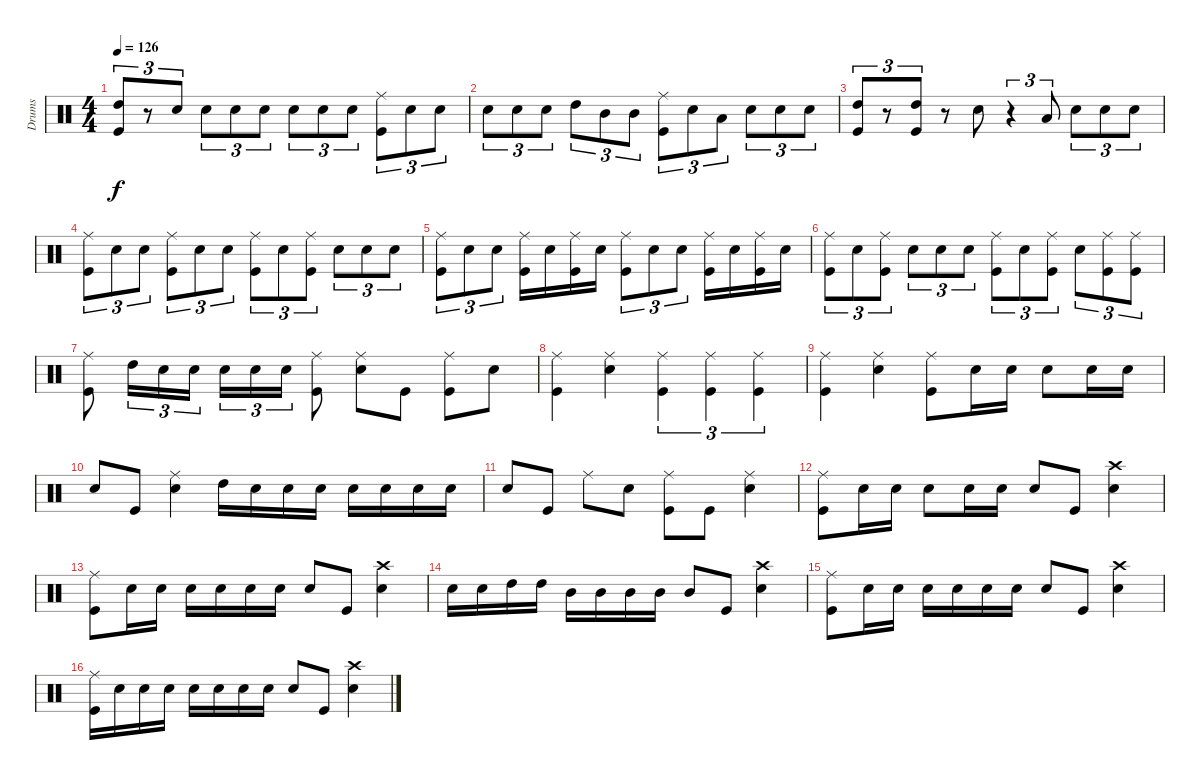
\track ("Drums" "Drums") {instrument percussion}
\staff {score}
\articulation defaults
\ts (4 4)
\tempo 126
\clef neutral
\ks c
("High Tom (hit)" "Kick (hit)").8{tu (3 2) dy f} r.8{tu (3 2)} "Electric Snare (hit)".8{tu (3 2)} "Electric Snare (hit)".8{tu (3 2)} "Electric Snare (hit)".8{tu (3 2)} "Electric Snare (hit)".8{tu (3 2)} "Electric Snare (hit)".8{tu (3 2)} "Electric Snare (hit)".8{tu (3 2)} "Electric Snare (hit)".8{tu (3 2)} ("Ride (middle)" "Kick (hit)").8{tu (3 2)} "Electric Snare (hit)".8{tu (3 2)} "Electric Snare (hit)".8{tu (3 2)} |
"Electric Snare (hit)".8{tu (3 2)} "Electric Snare (hit)".8{tu (3 2)} "Electric Snare (hit)".8{tu (3 2)} "High Tom (hit)".8{tu (3 2)} "Mid Tom (hit)".8{tu (3 2)} "Mid Tom (hit)".8{tu (3 2)} ("Ride (middle)" "Kick (hit)").8{tu (3 2)} "Electric Snare (hit)".8{tu (3 2)} "Low Floor Tom (hit)".8{tu (3 2)} "Electric Snare (hit)".8{tu (3 2)} "Electric Snare (hit)".8{tu (3 2)} "Electric Snare (hit)".8{tu (3 2)} |
("High Tom (hit)" "Kick (hit)").8{tu (3 2)} r.8{tu (3 2)} ("High Tom (hit)" "Kick (hit)").8{tu (3 2)} r.8 "Electric Snare (hit)".8 r.4{tu (3 2)} "Low Floor Tom (hit)".8{tu (3 2)} "Electric Snare (hit)".8{tu (3 2)} "Electric Snare (hit)".8{tu (3 2)} "Electric Snare (hit)".8{tu (3 2)} |
("Ride (middle)" "Kick (hit)").8{tu (3 2)} "Electric Snare (hit)".8{tu (3 2)} "Electric Snare (hit)".8{tu (3 2)} ("Ride (middle)" "Kick (hit)").8{tu (3 2)} "Electric Snare (hit)".8{tu (3 2)} "Electric Snare (hit)".8{tu (3 2)} ("Ride (middle)" "Kick (hit)").8{tu (3 2)} "Electric Snare (hit)".8{tu (3 2)} ("Ride (middle)" "Kick (hit)").8{tu (3 2)} "Electric Snare (hit)".8{tu (3 2)} "Electric Snare (hit)".8{tu (3 2)} "Electric Snare (hit)".8{tu (3 2)} |
("Ride (middle)" "Kick (hit)").8{tu (3 2)} "Electric Snare (hit)".8{tu (3 2)} "Electric Snare (hit)".8{tu (3 2)} ("Ride (middle)" "Kick (hit)").16 "Electric Snare (hit)".16 ("Ride (middle)" "Kick (hit)").16 "Electric Snare (hit)".16 ("Ride (middle)" "Kick (hit)").8{tu (3 2)} "Electric Snare (hit)".8{tu (3 2)} "Electric Snare (hit)".8{tu (3 2)} ("Ride (middle)" "Kick (hit)").16 "Electric Snare (hit)".16 ("Ride (middle)" "Kick (hit)").16 "Electric Snare (hit)".16 |
("Ride (middle)" "Kick (hit)").8{tu (3 2)} "Electric Snare (hit)".8{tu (3 2)} ("Ride (middle)" "Kick (hit)").8{tu (3 2)} "Electric Snare (hit)".8{tu (3 2)} "Electric Snare (hit)".8{tu (3 2)} "Electric Snare (hit)".8{tu (3 2)} ("Ride (middle)" "Kick (hit)").8{tu (3 2)} "Electric Snare (hit)".8{tu (3 2)} ("Ride (middle)" "Kick (hit)").8{tu (3 2)} "Electric Snare (hit)".8{tu (3 2)} ("Ride (middle)" "Kick (hit)").8{tu (3 2)} ("Ride (middle)" "Kick (hit)").8{tu (3 2)} |
("Ride (middle)" "Kick (hit)").8 "High Tom (hit)".16{tu (3 2)} "Electric Snare (hit)".16{tu (3 2)} "Electric Snare (hit)".16{tu (3 2)} "Electric Snare (hit)".16{tu (3 2)} "Electric Snare (hit)".16{tu (3 2)} "Electric Snare (hit)".16{tu (3 2)} ("Ride (middle)" "Kick (hit)").8 ("Ride (middle)" "Electric Snare (hit)").8 "Kick (hit)".8 ("Ride (middle)" "Kick (hit)").8 "Electric Snare (hit)".8 |
("Ride (middle)" "Kick (hit)").4 ("Ride (middle)" "Electric Snare (hit)").4 ("Ride (middle)" "Kick (hit)").4{tu (3 2)} ("Ride (middle)" "Kick (hit)").4{tu (3 2)} ("Ride (middle)" "Kick (hit)").4{tu (3 2)} |
("Ride (middle)" "Kick (hit)").4 ("Ride (middle)" "Electric Snare (hit)").4 ("Ride (middle)" "Kick (hit)").8 "Electric Snare (hit)".16 "Electric Snare (hit)".16 "Electric Snare (hit)".8 "Electric Snare (hit)".16 "Electric Snare (hit)".16 |
"Electric Snare (hit)".8 "Kick (hit)".8 ("Ride (middle)" "Electric Snare (hit)").4 "High Tom (hit)".16 "Electric Snare (hit)".16 "Electric Snare (hit)".16 "Electric Snare (hit)".16 "Electric Snare (hit)".16 "Electric Snare (hit)".16 "Electric Snare (hit)".16 "Electric Snare (hit)".16 |
"Electric Snare (hit)".8 "Kick (hit)".8 "Ride (middle)".8 "Electric Snare (hit)".8 ("Ride (middle)" "Kick (hit)").8 "Kick (hit)".8 ("Ride (middle)" "Electric Snare (hit)").4 |
("Ride (middle)" "Kick (hit)").8 "Electric Snare (hit)".16 "Electric Snare (hit)".16 "Electric Snare (hit)".8 "Electric Snare (hit)".16 "Electric Snare (hit)".16 "Electric Snare (hit)".8 "Kick (hit)".8 ("Crash high (hit)" "Electric Snare (hit)").4 |
("Ride (middle)" "Kick (hit)").8 "Electric Snare (hit)".16 "Electric Snare (hit)".16 "Electric Snare (hit)".16 "Electric Snare (hit)".16 "Electric Snare (hit)".16 "Electric Snare (hit)".16 "Electric Snare (hit)".8 "Kick (hit)".8 ("Crash high (hit)" "Electric Snare (hit)").4 |
"Electric Snare (hit)".16 "Electric Snare (hit)".16 "High Tom (hit)".16 "High Tom (hit)".16 "Mid Tom (hit)".16 "Mid Tom (hit)".16 "Mid Tom (hit)".16 "Mid Tom (hit)".16 "Mid Tom (hit)".8 "Kick (hit)".8 ("Crash high (hit)" "Electric Snare (hit)").4 |
("Ride (middle)" "Kick (hit)").8 "Electric Snare (hit)".16 "Electric Snare (hit)".16 "Electric Snare (hit)".16 "Electric Snare (hit)".16 "Electric Snare (hit)".16 "Electric Snare (hit)".16 "Electric Snare (hit)".8 "Kick (hit)".8 ("Crash high (hit)" "Electric Snare (hit)").4 |
("Ride (middle)" "Kick (hit)").16 "Electric Snare (hit)".16 "Electric Snare (hit)".16 "Electric Snare (hit)".16 "Electric Snare (hit)".16 "Electric Snare (hit)".16 "Electric Snare (hit)".16 "Electric Snare (hit)".16 "Electric Snare (hit)".8 "Kick (hit)".8 ("Crash high (hit)" "Electric Snare (hit)").4
